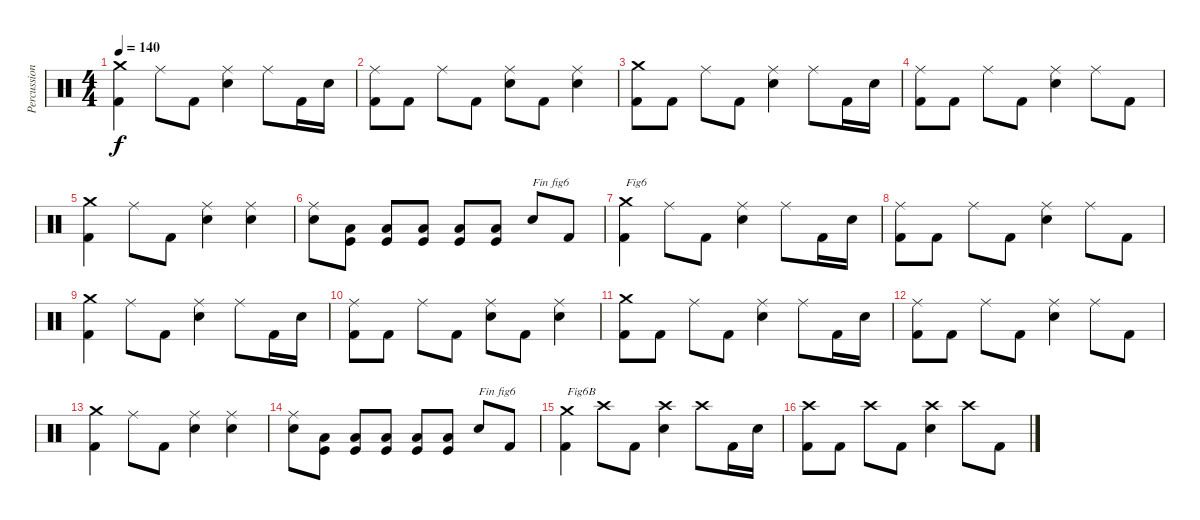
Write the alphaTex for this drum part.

\track ("Percussions" "Percussion") {instrument percussion}
\staff {score}
\articulation defaults
\ts (4 4)
\tempo 140
\clef neutral
\ks c
("Kick (hit) 2" "Crash medium (hit)").4{dy f} "Ride (middle)".8 "Kick (hit) 2".8 ("Electric Snare (hit)" "Ride (middle)").4 "Ride (middle)".8 "Kick (hit) 2".16 "Electric Snare (hit)".16 |
("Kick (hit) 2" "Ride (middle)").8 "Kick (hit) 2".8 "Ride (middle)".8 "Kick (hit) 2".8 ("Electric Snare (hit)" "Ride (middle)").8 "Kick (hit) 2".8 ("Electric Snare (hit)" "Ride (middle)").4 |
("Kick (hit) 2" "Crash medium (hit)").8 "Kick (hit) 2".8 "Ride (middle)".8 "Kick (hit) 2".8 ("Electric Snare (hit)" "Ride (middle)").4 "Ride (middle)".8 "Kick (hit) 2".16 "Electric Snare (hit)".16 |
("Kick (hit) 2" "Ride (middle)").8 "Kick (hit) 2".8 "Ride (middle)".8 "Kick (hit) 2".8 ("Electric Snare (hit)" "Ride (middle)").4 "Ride (middle)".8 "Kick (hit) 2".8 |
("Kick (hit) 2" "Crash medium (hit)").4 "Ride (middle)".8 "Kick (hit) 2".8 ("Electric Snare (hit)" "Ride (middle)").4 ("Electric Snare (hit)" "Ride (middle)").4 |
("Electric Snare (hit)" "Ride (middle)").8 ("Kick (hit)" "Low Floor Tom (hit)").8 ("Kick (hit)" "Low Floor Tom (hit)").8 ("Kick (hit)" "Low Floor Tom (hit)").8 ("Kick (hit)" "Low Floor Tom (hit)").8 ("Kick (hit)" "Low Floor Tom (hit)").8 "Electric Snare (hit)".8{txt "Fin fig6"} "Kick (hit) 2".8 |
("Kick (hit) 2" "Crash medium (hit)").4{txt "Fig6"} "Ride (middle)".8 "Kick (hit) 2".8 ("Electric Snare (hit)" "Ride (middle)").4 "Ride (middle)".8 "Kick (hit) 2".16 "Electric Snare (hit)".16 |
("Kick (hit) 2" "Ride (middle)").8 "Kick (hit) 2".8 "Ride (middle)".8 "Kick (hit) 2".8 ("Electric Snare (hit)" "Ride (middle)").4 "Ride (middle)".8 "Kick (hit) 2".8 |
("Kick (hit) 2" "Crash medium (hit)").4 "Ride (middle)".8 "Kick (hit) 2".8 ("Electric Snare (hit)" "Ride (middle)").4 "Ride (middle)".8 "Kick (hit) 2".16 "Electric Snare (hit)".16 |
("Kick (hit) 2" "Ride (middle)").8 "Kick (hit) 2".8 "Ride (middle)".8 "Kick (hit) 2".8 ("Electric Snare (hit)" "Ride (middle)").8 "Kick (hit) 2".8 ("Electric Snare (hit)" "Ride (middle)").4 |
("Kick (hit) 2" "Crash medium (hit)").8 "Kick (hit) 2".8 "Ride (middle)".8 "Kick (hit) 2".8 ("Electric Snare (hit)" "Ride (middle)").4 "Ride (middle)".8 "Kick (hit) 2".16 "Electric Snare (hit)".16 |
("Kick (hit) 2" "Ride (middle)").8 "Kick (hit) 2".8 "Ride (middle)".8 "Kick (hit) 2".8 ("Electric Snare (hit)" "Ride (middle)").4 "Ride (middle)".8 "Kick (hit) 2".8 |
("Kick (hit) 2" "Crash medium (hit)").4 "Ride (middle)".8 "Kick (hit) 2".8 ("Electric Snare (hit)" "Ride (middle)").4 ("Electric Snare (hit)" "Ride (middle)").4 |
("Electric Snare (hit)" "Ride (middle)").8 ("Kick (hit)" "Low Floor Tom (hit)").8 ("Kick (hit)" "Low Floor Tom (hit)").8 ("Kick (hit)" "Low Floor Tom (hit)").8 ("Kick (hit)" "Low Floor Tom (hit)").8 ("Kick (hit)" "Low Floor Tom (hit)").8 "Electric Snare (hit)".8{txt "Fin fig6"} "Kick (hit) 2".8 |
("Kick (hit) 2" "Crash medium (hit)").4{txt "Fig6B"} "Crash high (hit)".8 "Kick (hit) 2".8 ("Electric Snare (hit)" "Crash high (hit)").4 "Crash high (hit)".8 "Kick (hit) 2".16 "Electric Snare (hit)".16 |
("Kick (hit) 2" "Crash high (hit)").8 "Kick (hit) 2".8 "Crash high (hit)".8 "Kick (hit) 2".8 ("Electric Snare (hit)" "Crash high (hit)").4 "Crash high (hit)".8 "Kick (hit) 2".8
